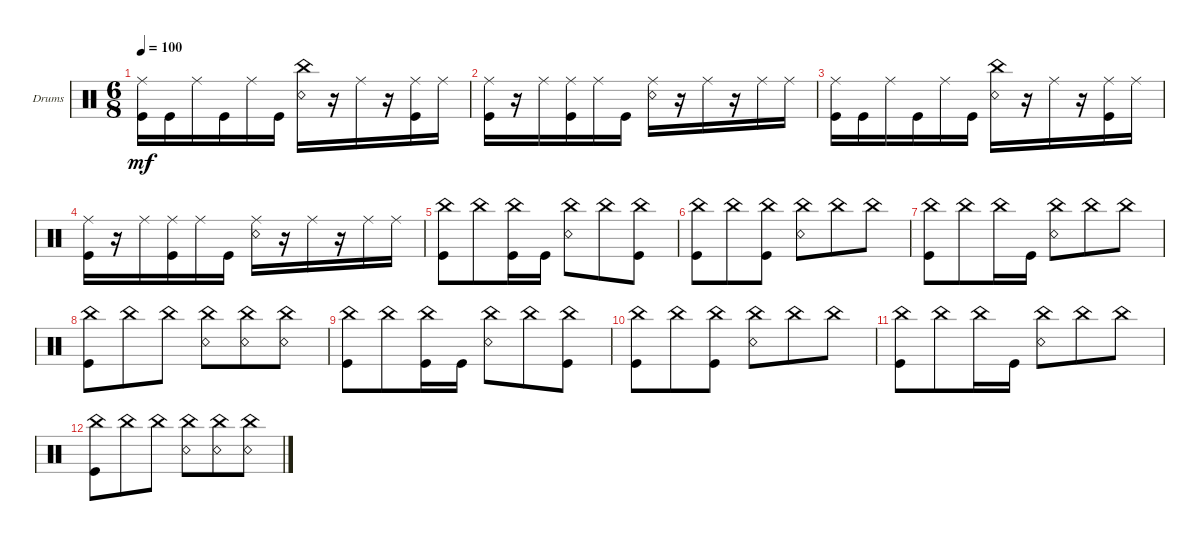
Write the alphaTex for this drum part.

\defaultSystemsLayout 4
\bracketExtendMode groupsimilarinstruments
\firstSystemTrackNameOrientation horizontal
\otherSystemsTrackNameOrientation horizontal
\track ("Drumkit" "Drums") {instrument percussion}
\staff {score}
\articulation defaults
\ts (6 8)
\tempo 100
\clef neutral
\ks aminor
("Ride (middle)" "Kick (hit)").16{dy mf} "Kick (hit)".16 "Ride (middle)".16 "Kick (hit)".16 "Ride (middle)".16 "Kick (hit)".16 ("Snare (rim shot)" "China (hit)").16 r.16 "Ride (middle)".16 r.16 ("Ride (middle)" "Kick (hit)").16 "Ride (middle)".16 |
("Ride (middle)" "Kick (hit)").16 r.16 "Ride (middle)".16 ("Ride (middle)" "Kick (hit)").16 "Ride (middle)".16 "Kick (hit)".16 ("Ride (middle)" "Snare (rim shot)").16 r.16 "Ride (middle)".16 r.16 "Ride (middle)".16 "Ride (middle)".16 |
("Ride (middle)" "Kick (hit)").16 "Kick (hit)".16 "Ride (middle)".16 "Kick (hit)".16 "Ride (middle)".16 "Kick (hit)".16 ("Snare (rim shot)" "China (hit)").16 r.16 "Ride (middle)".16 r.16 ("Ride (middle)" "Kick (hit)").16 "Ride (middle)".16 |
("Ride (middle)" "Kick (hit)").16 r.16 "Ride (middle)".16 ("Ride (middle)" "Kick (hit)").16 "Ride (middle)".16 "Kick (hit)".16 ("Ride (middle)" "Snare (rim shot)").16 r.16 "Ride (middle)".16 r.16 "Ride (middle)".16 "Ride (middle)".16 |
("Kick (hit)" "China (hit)").8 "China (hit)".8 ("China (hit)" "Kick (hit)").16 "Kick (hit)".16 ("Snare (rim shot)" "China (hit)").8 "China (hit)".8 ("China (hit)" "Kick (hit)").8 |
("Kick (hit)" "China (hit)").8 "China (hit)".8 ("China (hit)" "Kick (hit)").8 ("Snare (rim shot)" "China (hit)").8 "China (hit)".8 "China (hit)".8 |
("Kick (hit)" "China (hit)").8 "China (hit)".8 "China (hit)".16 "Kick (hit)".16 ("Snare (rim shot)" "China (hit)").8 "China (hit)".8 "China (hit)".8 |
("Kick (hit)" "China (hit)").8 "China (hit)".8 "China (hit)".8 ("Snare (rim shot)" "China (hit)").8 ("China (hit)" "Snare (rim shot)").8 ("China (hit)" "Snare (rim shot)").8 |
("Kick (hit)" "China (hit)").8 "China (hit)".8 ("China (hit)" "Kick (hit)").16 "Kick (hit)".16 ("Snare (rim shot)" "China (hit)").8 "China (hit)".8 ("China (hit)" "Kick (hit)").8 |
("Kick (hit)" "China (hit)").8 "China (hit)".8 ("China (hit)" "Kick (hit)").8 ("Snare (rim shot)" "China (hit)").8 "China (hit)".8 "China (hit)".8 |
("Kick (hit)" "China (hit)").8 "China (hit)".8 "China (hit)".16 "Kick (hit)".16 ("Snare (rim shot)" "China (hit)").8 "China (hit)".8 "China (hit)".8 |
("Kick (hit)" "China (hit)").8 "China (hit)".8 "China (hit)".8 ("Snare (rim shot)" "China (hit)").8 ("China (hit)" "Snare (rim shot)").8 ("China (hit)" "Snare (rim shot)").8
